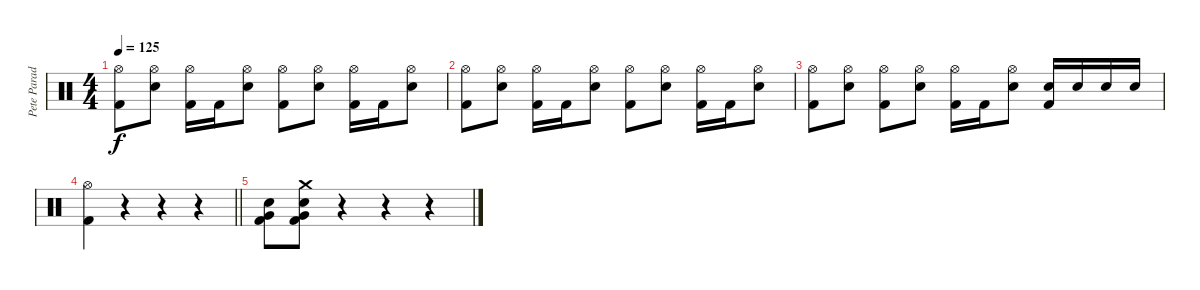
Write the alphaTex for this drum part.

\track ("Pete Parada - Drums" "Pete Parad") {instrument percussion}
\staff {score}
\articulation defaults
\ts (4 4)
\tempo 125
\clef neutral
\ks c
("Hi-Hat (open)" "Kick (hit) 2").8{dy f} ("Hi-Hat (open)" "Electric Snare (hit)").8 ("Hi-Hat (open)" "Kick (hit) 2").16 "Kick (hit) 2".16 ("Hi-Hat (open)" "Electric Snare (hit)").8 ("Hi-Hat (open)" "Kick (hit) 2").8 ("Hi-Hat (open)" "Electric Snare (hit)").8 ("Hi-Hat (open)" "Kick (hit) 2").16 "Kick (hit) 2".16 ("Hi-Hat (open)" "Electric Snare (hit)").8 |
("Hi-Hat (open)" "Kick (hit) 2").8 ("Hi-Hat (open)" "Electric Snare (hit)").8 ("Hi-Hat (open)" "Kick (hit) 2").16 "Kick (hit) 2".16 ("Hi-Hat (open)" "Electric Snare (hit)").8 ("Hi-Hat (open)" "Kick (hit) 2").8 ("Hi-Hat (open)" "Electric Snare (hit)").8 ("Hi-Hat (open)" "Kick (hit) 2").16 "Kick (hit) 2".16 ("Hi-Hat (open)" "Electric Snare (hit)").8 |
("Hi-Hat (open)" "Kick (hit) 2").8 ("Hi-Hat (open)" "Electric Snare (hit)").8 ("Hi-Hat (open)" "Kick (hit) 2").8 ("Hi-Hat (open)" "Electric Snare (hit)").8 ("Hi-Hat (open)" "Kick (hit) 2").16 "Kick (hit) 2".16 ("Hi-Hat (open)" "Electric Snare (hit)").8 ("Electric Snare (hit)" "Kick (hit) 2").16 "Electric Snare (hit)".16 "Electric Snare (hit)".16 "Electric Snare (hit)".16 |
\barLineRight lightlight
("Hi-Hat (open)" "Kick (hit) 2").4 r.4 r.4 r.4 |
("Very Low Tom (hit)" "Electric Snare (hit)" "Kick (hit) 2").8 ("Very Low Tom (hit)" "Crash medium (hit)" "Electric Snare (hit)" "Kick (hit) 2").8 r.4 r.4 r.4
